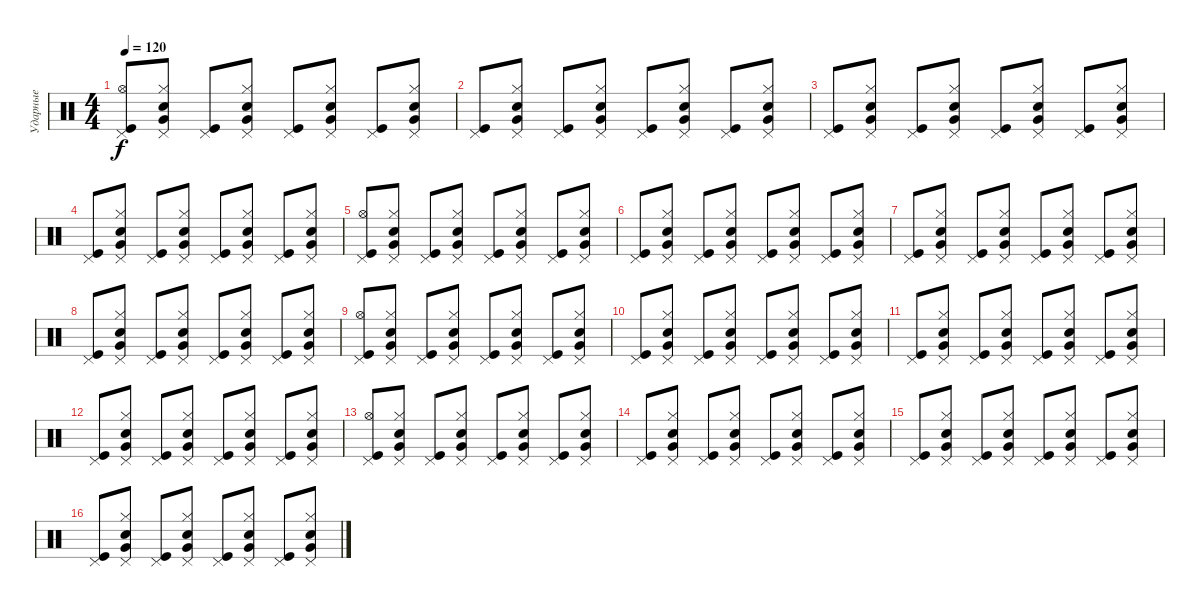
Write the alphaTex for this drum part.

\track ("Ударные" "Ударные") {instrument percussion}
\staff {score}
\articulation defaults
\ts (4 4)
\tempo 120
\clef neutral
\ks c
("Pedal Hi-Hat (hit)" "Hi-Hat (open)" "Kick (hit)").8{dy f} ("Pedal Hi-Hat (hit)" "Hi-Hat (closed)" "Electric Snare (hit)" "Very Low Tom (hit)").8 ("Pedal Hi-Hat (hit)" "Kick (hit)").8 ("Pedal Hi-Hat (hit)" "Hi-Hat (closed)" "Electric Snare (hit)" "Very Low Tom (hit)").8 ("Pedal Hi-Hat (hit)" "Kick (hit)").8 ("Pedal Hi-Hat (hit)" "Hi-Hat (closed)" "Electric Snare (hit)" "Very Low Tom (hit)").8 ("Pedal Hi-Hat (hit)" "Kick (hit)").8 ("Pedal Hi-Hat (hit)" "Hi-Hat (closed)" "Electric Snare (hit)" "Very Low Tom (hit)").8 |
("Pedal Hi-Hat (hit)" "Kick (hit)").8 ("Pedal Hi-Hat (hit)" "Hi-Hat (closed)" "Electric Snare (hit)" "Very Low Tom (hit)").8 ("Pedal Hi-Hat (hit)" "Kick (hit)").8 ("Pedal Hi-Hat (hit)" "Hi-Hat (closed)" "Electric Snare (hit)" "Very Low Tom (hit)").8 ("Pedal Hi-Hat (hit)" "Kick (hit)").8 ("Pedal Hi-Hat (hit)" "Hi-Hat (closed)" "Electric Snare (hit)" "Very Low Tom (hit)").8 ("Pedal Hi-Hat (hit)" "Kick (hit)").8 ("Pedal Hi-Hat (hit)" "Hi-Hat (closed)" "Electric Snare (hit)" "Very Low Tom (hit)").8 |
("Pedal Hi-Hat (hit)" "Kick (hit)").8 ("Pedal Hi-Hat (hit)" "Hi-Hat (closed)" "Electric Snare (hit)" "Very Low Tom (hit)").8 ("Pedal Hi-Hat (hit)" "Kick (hit)").8 ("Pedal Hi-Hat (hit)" "Hi-Hat (closed)" "Electric Snare (hit)" "Very Low Tom (hit)").8 ("Pedal Hi-Hat (hit)" "Kick (hit)").8 ("Pedal Hi-Hat (hit)" "Hi-Hat (closed)" "Electric Snare (hit)" "Very Low Tom (hit)").8 ("Pedal Hi-Hat (hit)" "Kick (hit)").8 ("Pedal Hi-Hat (hit)" "Hi-Hat (closed)" "Electric Snare (hit)" "Very Low Tom (hit)").8 |
("Pedal Hi-Hat (hit)" "Kick (hit)").8 ("Pedal Hi-Hat (hit)" "Hi-Hat (closed)" "Electric Snare (hit)" "Very Low Tom (hit)").8 ("Pedal Hi-Hat (hit)" "Kick (hit)").8 ("Pedal Hi-Hat (hit)" "Hi-Hat (closed)" "Electric Snare (hit)" "Very Low Tom (hit)").8 ("Pedal Hi-Hat (hit)" "Kick (hit)").8 ("Pedal Hi-Hat (hit)" "Hi-Hat (closed)" "Electric Snare (hit)" "Very Low Tom (hit)").8 ("Pedal Hi-Hat (hit)" "Kick (hit)").8 ("Pedal Hi-Hat (hit)" "Hi-Hat (closed)" "Electric Snare (hit)" "Very Low Tom (hit)").8 |
("Pedal Hi-Hat (hit)" "Hi-Hat (open)" "Kick (hit)").8 ("Pedal Hi-Hat (hit)" "Hi-Hat (closed)" "Electric Snare (hit)" "Very Low Tom (hit)").8 ("Pedal Hi-Hat (hit)" "Kick (hit)").8 ("Pedal Hi-Hat (hit)" "Hi-Hat (closed)" "Electric Snare (hit)" "Very Low Tom (hit)").8 ("Pedal Hi-Hat (hit)" "Kick (hit)").8 ("Pedal Hi-Hat (hit)" "Hi-Hat (closed)" "Electric Snare (hit)" "Very Low Tom (hit)").8 ("Pedal Hi-Hat (hit)" "Kick (hit)").8 ("Pedal Hi-Hat (hit)" "Hi-Hat (closed)" "Electric Snare (hit)" "Very Low Tom (hit)").8 |
("Pedal Hi-Hat (hit)" "Kick (hit)").8 ("Pedal Hi-Hat (hit)" "Hi-Hat (closed)" "Electric Snare (hit)" "Very Low Tom (hit)").8 ("Pedal Hi-Hat (hit)" "Kick (hit)").8 ("Pedal Hi-Hat (hit)" "Hi-Hat (closed)" "Electric Snare (hit)" "Very Low Tom (hit)").8 ("Pedal Hi-Hat (hit)" "Kick (hit)").8 ("Pedal Hi-Hat (hit)" "Hi-Hat (closed)" "Electric Snare (hit)" "Very Low Tom (hit)").8 ("Pedal Hi-Hat (hit)" "Kick (hit)").8 ("Pedal Hi-Hat (hit)" "Hi-Hat (closed)" "Electric Snare (hit)" "Very Low Tom (hit)").8 |
("Pedal Hi-Hat (hit)" "Kick (hit)").8 ("Pedal Hi-Hat (hit)" "Hi-Hat (closed)" "Electric Snare (hit)" "Very Low Tom (hit)").8 ("Pedal Hi-Hat (hit)" "Kick (hit)").8 ("Pedal Hi-Hat (hit)" "Hi-Hat (closed)" "Electric Snare (hit)" "Very Low Tom (hit)").8 ("Pedal Hi-Hat (hit)" "Kick (hit)").8 ("Pedal Hi-Hat (hit)" "Hi-Hat (closed)" "Electric Snare (hit)" "Very Low Tom (hit)").8 ("Pedal Hi-Hat (hit)" "Kick (hit)").8 ("Pedal Hi-Hat (hit)" "Hi-Hat (closed)" "Electric Snare (hit)" "Very Low Tom (hit)").8 |
("Pedal Hi-Hat (hit)" "Kick (hit)").8 ("Pedal Hi-Hat (hit)" "Hi-Hat (closed)" "Electric Snare (hit)" "Very Low Tom (hit)").8 ("Pedal Hi-Hat (hit)" "Kick (hit)").8 ("Pedal Hi-Hat (hit)" "Hi-Hat (closed)" "Electric Snare (hit)" "Very Low Tom (hit)").8 ("Pedal Hi-Hat (hit)" "Kick (hit)").8 ("Pedal Hi-Hat (hit)" "Hi-Hat (closed)" "Electric Snare (hit)" "Very Low Tom (hit)").8 ("Pedal Hi-Hat (hit)" "Kick (hit)").8 ("Pedal Hi-Hat (hit)" "Hi-Hat (closed)" "Electric Snare (hit)" "Very Low Tom (hit)").8 |
("Pedal Hi-Hat (hit)" "Hi-Hat (open)" "Kick (hit)").8 ("Pedal Hi-Hat (hit)" "Hi-Hat (closed)" "Electric Snare (hit)" "Very Low Tom (hit)").8 ("Pedal Hi-Hat (hit)" "Kick (hit)").8 ("Pedal Hi-Hat (hit)" "Hi-Hat (closed)" "Electric Snare (hit)" "Very Low Tom (hit)").8 ("Pedal Hi-Hat (hit)" "Kick (hit)").8 ("Pedal Hi-Hat (hit)" "Hi-Hat (closed)" "Electric Snare (hit)" "Very Low Tom (hit)").8 ("Pedal Hi-Hat (hit)" "Kick (hit)").8 ("Pedal Hi-Hat (hit)" "Hi-Hat (closed)" "Electric Snare (hit)" "Very Low Tom (hit)").8 |
("Pedal Hi-Hat (hit)" "Kick (hit)").8 ("Pedal Hi-Hat (hit)" "Hi-Hat (closed)" "Electric Snare (hit)" "Very Low Tom (hit)").8 ("Pedal Hi-Hat (hit)" "Kick (hit)").8 ("Pedal Hi-Hat (hit)" "Hi-Hat (closed)" "Electric Snare (hit)" "Very Low Tom (hit)").8 ("Pedal Hi-Hat (hit)" "Kick (hit)").8 ("Pedal Hi-Hat (hit)" "Hi-Hat (closed)" "Electric Snare (hit)" "Very Low Tom (hit)").8 ("Pedal Hi-Hat (hit)" "Kick (hit)").8 ("Pedal Hi-Hat (hit)" "Hi-Hat (closed)" "Electric Snare (hit)" "Very Low Tom (hit)").8 |
("Pedal Hi-Hat (hit)" "Kick (hit)").8 ("Pedal Hi-Hat (hit)" "Hi-Hat (closed)" "Electric Snare (hit)" "Very Low Tom (hit)").8 ("Pedal Hi-Hat (hit)" "Kick (hit)").8 ("Pedal Hi-Hat (hit)" "Hi-Hat (closed)" "Electric Snare (hit)" "Very Low Tom (hit)").8 ("Pedal Hi-Hat (hit)" "Kick (hit)").8 ("Pedal Hi-Hat (hit)" "Hi-Hat (closed)" "Electric Snare (hit)" "Very Low Tom (hit)").8 ("Pedal Hi-Hat (hit)" "Kick (hit)").8 ("Pedal Hi-Hat (hit)" "Hi-Hat (closed)" "Electric Snare (hit)" "Very Low Tom (hit)").8 |
("Pedal Hi-Hat (hit)" "Kick (hit)").8 ("Pedal Hi-Hat (hit)" "Hi-Hat (closed)" "Electric Snare (hit)" "Very Low Tom (hit)").8 ("Pedal Hi-Hat (hit)" "Kick (hit)").8 ("Pedal Hi-Hat (hit)" "Hi-Hat (closed)" "Electric Snare (hit)" "Very Low Tom (hit)").8 ("Pedal Hi-Hat (hit)" "Kick (hit)").8 ("Pedal Hi-Hat (hit)" "Hi-Hat (closed)" "Electric Snare (hit)" "Very Low Tom (hit)").8 ("Pedal Hi-Hat (hit)" "Kick (hit)").8 ("Pedal Hi-Hat (hit)" "Hi-Hat (closed)" "Electric Snare (hit)" "Very Low Tom (hit)").8 |
("Pedal Hi-Hat (hit)" "Hi-Hat (open)" "Kick (hit)").8 ("Pedal Hi-Hat (hit)" "Hi-Hat (closed)" "Electric Snare (hit)" "Very Low Tom (hit)").8 ("Pedal Hi-Hat (hit)" "Kick (hit)").8 ("Pedal Hi-Hat (hit)" "Hi-Hat (closed)" "Electric Snare (hit)" "Very Low Tom (hit)").8 ("Pedal Hi-Hat (hit)" "Kick (hit)").8 ("Pedal Hi-Hat (hit)" "Hi-Hat (closed)" "Electric Snare (hit)" "Very Low Tom (hit)").8 ("Pedal Hi-Hat (hit)" "Kick (hit)").8 ("Pedal Hi-Hat (hit)" "Hi-Hat (closed)" "Electric Snare (hit)" "Very Low Tom (hit)").8 |
("Pedal Hi-Hat (hit)" "Kick (hit)").8 ("Pedal Hi-Hat (hit)" "Hi-Hat (closed)" "Electric Snare (hit)" "Very Low Tom (hit)").8 ("Pedal Hi-Hat (hit)" "Kick (hit)").8 ("Pedal Hi-Hat (hit)" "Hi-Hat (closed)" "Electric Snare (hit)" "Very Low Tom (hit)").8 ("Pedal Hi-Hat (hit)" "Kick (hit)").8 ("Pedal Hi-Hat (hit)" "Hi-Hat (closed)" "Electric Snare (hit)" "Very Low Tom (hit)").8 ("Pedal Hi-Hat (hit)" "Kick (hit)").8 ("Pedal Hi-Hat (hit)" "Hi-Hat (closed)" "Electric Snare (hit)" "Very Low Tom (hit)").8 |
("Pedal Hi-Hat (hit)" "Kick (hit)").8 ("Pedal Hi-Hat (hit)" "Hi-Hat (closed)" "Electric Snare (hit)" "Very Low Tom (hit)").8 ("Pedal Hi-Hat (hit)" "Kick (hit)").8 ("Pedal Hi-Hat (hit)" "Hi-Hat (closed)" "Electric Snare (hit)" "Very Low Tom (hit)").8 ("Pedal Hi-Hat (hit)" "Kick (hit)").8 ("Pedal Hi-Hat (hit)" "Hi-Hat (closed)" "Electric Snare (hit)" "Very Low Tom (hit)").8 ("Pedal Hi-Hat (hit)" "Kick (hit)").8 ("Pedal Hi-Hat (hit)" "Hi-Hat (closed)" "Electric Snare (hit)" "Very Low Tom (hit)").8 |
("Pedal Hi-Hat (hit)" "Kick (hit)").8 ("Pedal Hi-Hat (hit)" "Hi-Hat (closed)" "Electric Snare (hit)" "Very Low Tom (hit)").8 ("Pedal Hi-Hat (hit)" "Kick (hit)").8 ("Pedal Hi-Hat (hit)" "Hi-Hat (closed)" "Electric Snare (hit)" "Very Low Tom (hit)").8 ("Pedal Hi-Hat (hit)" "Kick (hit)").8 ("Pedal Hi-Hat (hit)" "Hi-Hat (closed)" "Electric Snare (hit)" "Very Low Tom (hit)").8 ("Pedal Hi-Hat (hit)" "Kick (hit)").8 ("Pedal Hi-Hat (hit)" "Hi-Hat (closed)" "Electric Snare (hit)" "Very Low Tom (hit)").8
